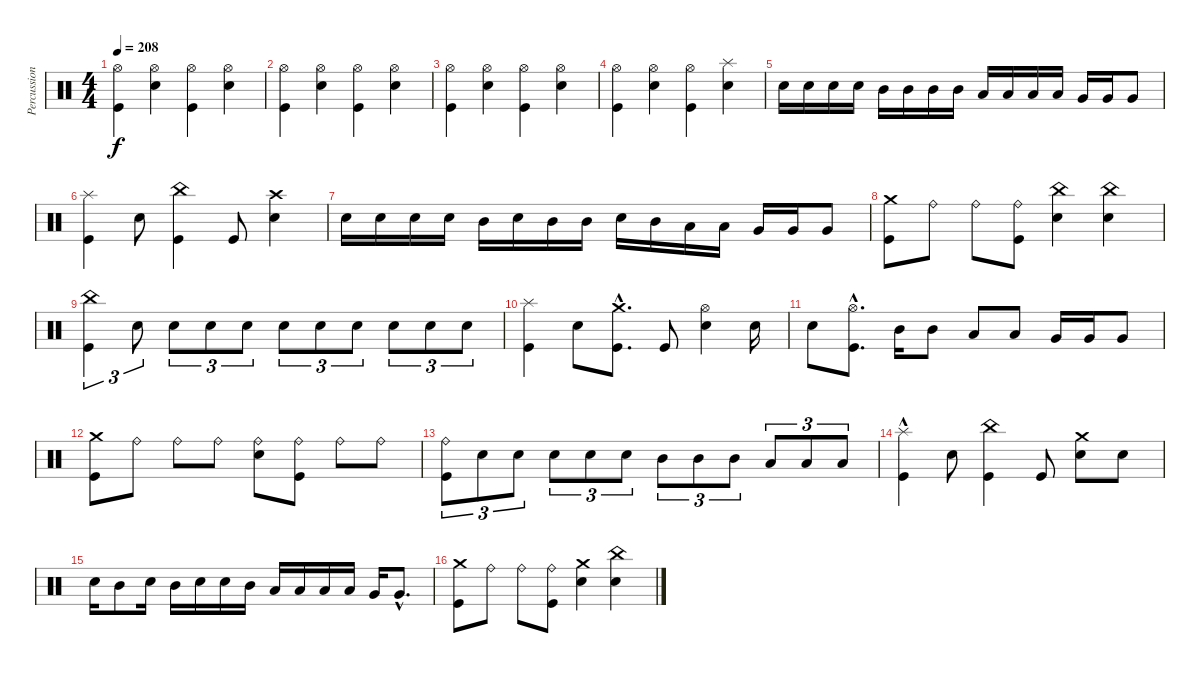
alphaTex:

\track ("Percussions" "Percussion") {instrument percussion}
\staff {score}
\articulation defaults
\ts (4 4)
\tempo 208
\clef neutral
\ks c
("Kick (hit)" "Hi-Hat (open)").4{dy f} ("Electric Snare (hit)" "Hi-Hat (open)").4 ("Kick (hit)" "Hi-Hat (open)").4 ("Electric Snare (hit)" "Hi-Hat (open)").4 |
("Kick (hit)" "Hi-Hat (open)").4 ("Electric Snare (hit)" "Hi-Hat (open)").4 ("Kick (hit)" "Hi-Hat (open)").4 ("Electric Snare (hit)" "Hi-Hat (open)").4 |
("Kick (hit)" "Hi-Hat (open)").4 ("Electric Snare (hit)" "Hi-Hat (open)").4 ("Kick (hit)" "Hi-Hat (open)").4 ("Electric Snare (hit)" "Hi-Hat (open)").4 |
("Kick (hit)" "Hi-Hat (open)").4 ("Electric Snare (hit)" "Hi-Hat (open)").4 ("Kick (hit)" "Hi-Hat (open)").4 ("Electric Snare (hit)" "Splash (hit)").4 |
"Electric Snare (hit)".16 "Electric Snare (hit)".16 "Electric Snare (hit)".16 "Electric Snare (hit)".16 "Mid Tom (hit)".16 "Mid Tom (hit)".16 "Mid Tom (hit)".16 "Mid Tom (hit)".16 "Low Tom (hit)".16 "Low Tom (hit)".16 "Low Tom (hit)".16 "Low Tom (hit)".16 "Very Low Tom (hit)".16 "Very Low Tom (hit)".16 "Very Low Tom (hit)".8 |
("Kick (hit)" "Splash (hit)").4 "Electric Snare (hit)".8 ("Kick (hit)" "China (hit)").4 "Kick (hit)".8 ("Electric Snare (hit)" "Crash high (hit)").4 |
"Electric Snare (hit)".16 "Electric Snare (hit)".16 "Electric Snare (hit)".16 "Electric Snare (hit)".16 "Mid Tom (hit)".16 "Electric Snare (hit)".16 "Mid Tom (hit)".16 "Mid Tom (hit)".16 "Electric Snare (hit)".16 "Mid Tom (hit)".16 "Low Tom (hit)".16 "Low Tom (hit)".16 "Very Low Tom (hit)".16 "Very Low Tom (hit)".16 "Very Low Tom (hit)".8 |
("Kick (hit)" "Crash medium (hit)").8 "Ride (bell)".8 "Ride (bell)".8 ("Kick (hit)" "Ride (bell)").8 ("Electric Snare (hit)" "China (hit)").4 ("Electric Snare (hit)" "China (hit)").4 |
("Kick (hit)" "China (hit)").4{tu (3 2)} "Electric Snare (hit)".8{tu (3 2)} "Electric Snare (hit)".8{tu (3 2)} "Electric Snare (hit)".8{tu (3 2)} "Electric Snare (hit)".8{tu (3 2)} "Electric Snare (hit)".8{tu (3 2)} "Electric Snare (hit)".8{tu (3 2)} "Electric Snare (hit)".8{tu (3 2)} "Electric Snare (hit)".8{tu (3 2)} "Electric Snare (hit)".8{tu (3 2)} "Electric Snare (hit)".8{tu (3 2)} |
("Kick (hit)" "Splash (hit)").4 "Electric Snare (hit)".8 ("Kick (hit)"{hac} "Crash medium (hit)"{hac}).8{d} "Kick (hit)".8 ("Electric Snare (hit)" "Hi-Hat (open)").4 "Electric Snare (hit)".16 |
"Electric Snare (hit)".8 ("Kick (hit)"{hac} "Hi-Hat (open)"{hac}).8{d} "Mid Tom (hit)".16 "Mid Tom (hit)".8 "Low Tom (hit)".8 "Low Tom (hit)".8 "Very Low Tom (hit)".16 "Very Low Tom (hit)".16 "Very Low Tom (hit)".8 |
("Kick (hit)" "Crash medium (hit)").8 "Ride (bell)".8 "Ride (bell)".8 "Ride (bell)".8 ("Electric Snare (hit)" "Ride (bell)").8 ("Kick (hit)" "Ride (bell)").8 "Ride (bell)".8 "Ride (bell)".8 |
("Kick (hit)" "Ride (bell)").8{tu (3 2)} "Electric Snare (hit)".8{tu (3 2)} "Electric Snare (hit)".8{tu (3 2)} "Electric Snare (hit)".8{tu (3 2)} "Electric Snare (hit)".8{tu (3 2)} "Electric Snare (hit)".8{tu (3 2)} "Mid Tom (hit)".8{tu (3 2)} "Mid Tom (hit)".8{tu (3 2)} "Mid Tom (hit)".8{tu (3 2)} "Low Tom (hit)".8{tu (3 2)} "Low Tom (hit)".8{tu (3 2)} "Low Tom (hit)".8{tu (3 2)} |
("Kick (hit)"{hac} "Splash (hit)").4 "Electric Snare (hit)".8 ("Kick (hit)" "China (hit)").4 "Kick (hit)".8 ("Electric Snare (hit)" "Crash medium (hit)").8 "Electric Snare (hit)".8 |
"Electric Snare (hit)".16 "Mid Tom (hit)".8 "Electric Snare (hit)".16 "Mid Tom (hit)".16 "Electric Snare (hit)".16 "Electric Snare (hit)".16 "Mid Tom (hit)".16 "Low Tom (hit)".16 "Low Tom (hit)".16 "Low Tom (hit)".16 "Low Tom (hit)".16 "Very Low Tom (hit)".16 "Very Low Tom (hit)"{hac}.8{d} |
("Kick (hit)" "Crash medium (hit)").8 "Ride (bell)".8 "Ride (bell)".8 ("Kick (hit)" "Ride (bell)").8 ("Electric Snare (hit)" "Crash medium (hit)").4 ("Electric Snare (hit)" "China (hit)").4
